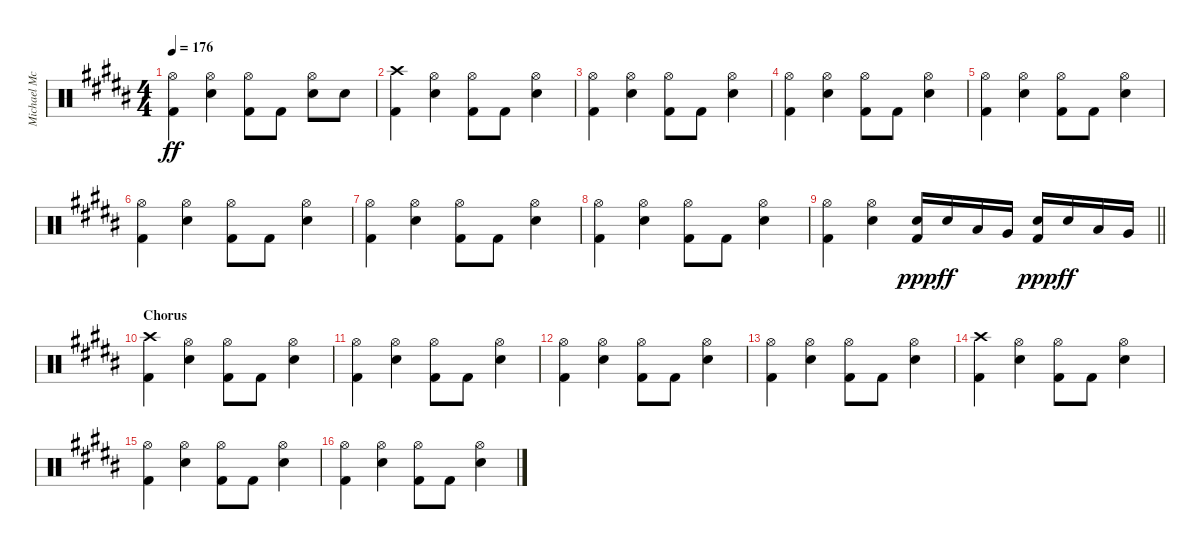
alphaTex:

\track ("Michael McDermott - Drums" "Michael Mc") {instrument percussion}
\staff {score}
\articulation defaults
\ts (4 4)
\tempo 176
\clef neutral
\ks b
("Hi-Hat (open)" "Kick (hit) 2").4{dy ff} ("Snare (hit) 2" "Hi-Hat (open)").4 ("Hi-Hat (open)" "Kick (hit) 2").8 "Kick (hit) 2".8 ("Snare (hit) 2" "Hi-Hat (open)").8 "Snare (hit) 2".8 |
("Kick (hit) 2" "Crash high (hit)").4 ("Snare (hit) 2" "Hi-Hat (open)").4 ("Hi-Hat (open)" "Kick (hit) 2").8 "Kick (hit) 2".8 ("Snare (hit) 2" "Hi-Hat (open)").4 |
("Hi-Hat (open)" "Kick (hit) 2").4 ("Snare (hit) 2" "Hi-Hat (open)").4 ("Hi-Hat (open)" "Kick (hit) 2").8 "Kick (hit) 2".8 ("Snare (hit) 2" "Hi-Hat (open)").4 |
("Hi-Hat (open)" "Kick (hit) 2").4 ("Snare (hit) 2" "Hi-Hat (open)").4 ("Hi-Hat (open)" "Kick (hit) 2").8 "Kick (hit) 2".8 ("Snare (hit) 2" "Hi-Hat (open)").4 |
("Hi-Hat (open)" "Kick (hit) 2").4 ("Snare (hit) 2" "Hi-Hat (open)").4 ("Hi-Hat (open)" "Kick (hit) 2").8 "Kick (hit) 2".8 ("Snare (hit) 2" "Hi-Hat (open)").4 |
("Hi-Hat (open)" "Kick (hit) 2").4 ("Snare (hit) 2" "Hi-Hat (open)").4 ("Hi-Hat (open)" "Kick (hit) 2").8 "Kick (hit) 2".8 ("Snare (hit) 2" "Hi-Hat (open)").4 |
("Hi-Hat (open)" "Kick (hit) 2").4 ("Snare (hit) 2" "Hi-Hat (open)").4 ("Hi-Hat (open)" "Kick (hit) 2").8 "Kick (hit) 2".8 ("Snare (hit) 2" "Hi-Hat (open)").4 |
("Hi-Hat (open)" "Kick (hit) 2").4 ("Snare (hit) 2" "Hi-Hat (open)").4 ("Hi-Hat (open)" "Kick (hit) 2").8 "Kick (hit) 2".8 ("Snare (hit) 2" "Hi-Hat (open)").4 |
\barLineRight lightlight
("Hi-Hat (open)" "Kick (hit) 2").4 ("Snare (hit) 2" "Hi-Hat (open)").4 ("Snare (hit) 2" "Kick (hit) 2").16{dy ppp} "Snare (hit) 2".16{dy ff} "Low Tom (hit)".16 "Very Low Tom (hit)".16 ("Snare (hit) 2" "Kick (hit) 2").16{dy ppp} "Snare (hit) 2".16{dy ff} "Low Tom (hit)".16 "Very Low Tom (hit)".16 |
\section ("" "Chorus")
("Kick (hit) 2" "Crash high (hit)").4 ("Snare (hit) 2" "Hi-Hat (open)").4 ("Hi-Hat (open)" "Kick (hit) 2").8 "Kick (hit) 2".8 ("Snare (hit) 2" "Hi-Hat (open)").4 |
("Hi-Hat (open)" "Kick (hit) 2").4 ("Snare (hit) 2" "Hi-Hat (open)").4 ("Hi-Hat (open)" "Kick (hit) 2").8 "Kick (hit) 2".8 ("Snare (hit) 2" "Hi-Hat (open)").4 |
("Hi-Hat (open)" "Kick (hit) 2").4 ("Snare (hit) 2" "Hi-Hat (open)").4 ("Hi-Hat (open)" "Kick (hit) 2").8 "Kick (hit) 2".8 ("Snare (hit) 2" "Hi-Hat (open)").4 |
("Hi-Hat (open)" "Kick (hit) 2").4 ("Snare (hit) 2" "Hi-Hat (open)").4 ("Hi-Hat (open)" "Kick (hit) 2").8 "Kick (hit) 2".8 ("Snare (hit) 2" "Hi-Hat (open)").4 |
("Kick (hit) 2" "Crash high (hit)").4 ("Snare (hit) 2" "Hi-Hat (open)").4 ("Hi-Hat (open)" "Kick (hit) 2").8 "Kick (hit) 2".8 ("Snare (hit) 2" "Hi-Hat (open)").4 |
("Hi-Hat (open)" "Kick (hit) 2").4 ("Snare (hit) 2" "Hi-Hat (open)").4 ("Hi-Hat (open)" "Kick (hit) 2").8 "Kick (hit) 2".8 ("Snare (hit) 2" "Hi-Hat (open)").4 |
("Hi-Hat (open)" "Kick (hit) 2").4 ("Snare (hit) 2" "Hi-Hat (open)").4 ("Hi-Hat (open)" "Kick (hit) 2").8 "Kick (hit) 2".8 ("Snare (hit) 2" "Hi-Hat (open)").4
